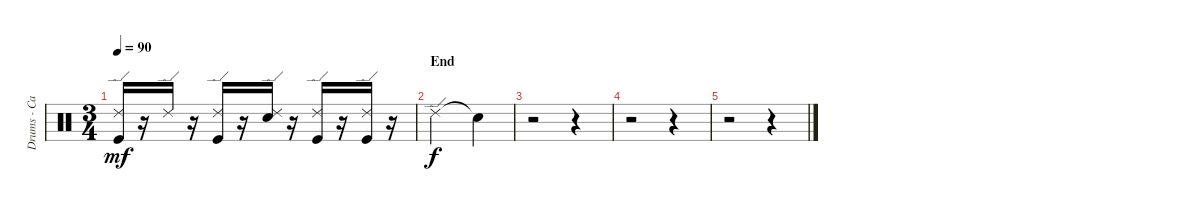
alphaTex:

\track ("Drums - Carla Azar" "Drums - Ca") {instrument percussion}
\staff {score}
\articulation defaults
\ts (3 4)
\tempo 90
\clef neutral
\ks c
("Ride (edge) 2" "Kick (hit)").16{dy mf} r.16 "Ride (edge) 2".16 r.16 ("Ride (edge) 2" "Kick (hit)").16 r.16 ("Ride (edge) 2" "Snare (hit) 2").16 r.16 ("Ride (edge) 2" "Kick (hit)").16 r.16 ("Ride (edge) 2" "Kick (hit)").16 r.16 |
\section ("" "End")
"Ride (edge) 2".2{dy f} "Snare (hit)"{t}.4 |
r.2 r.4 |
r.2 r.4 |
r.2 r.4
